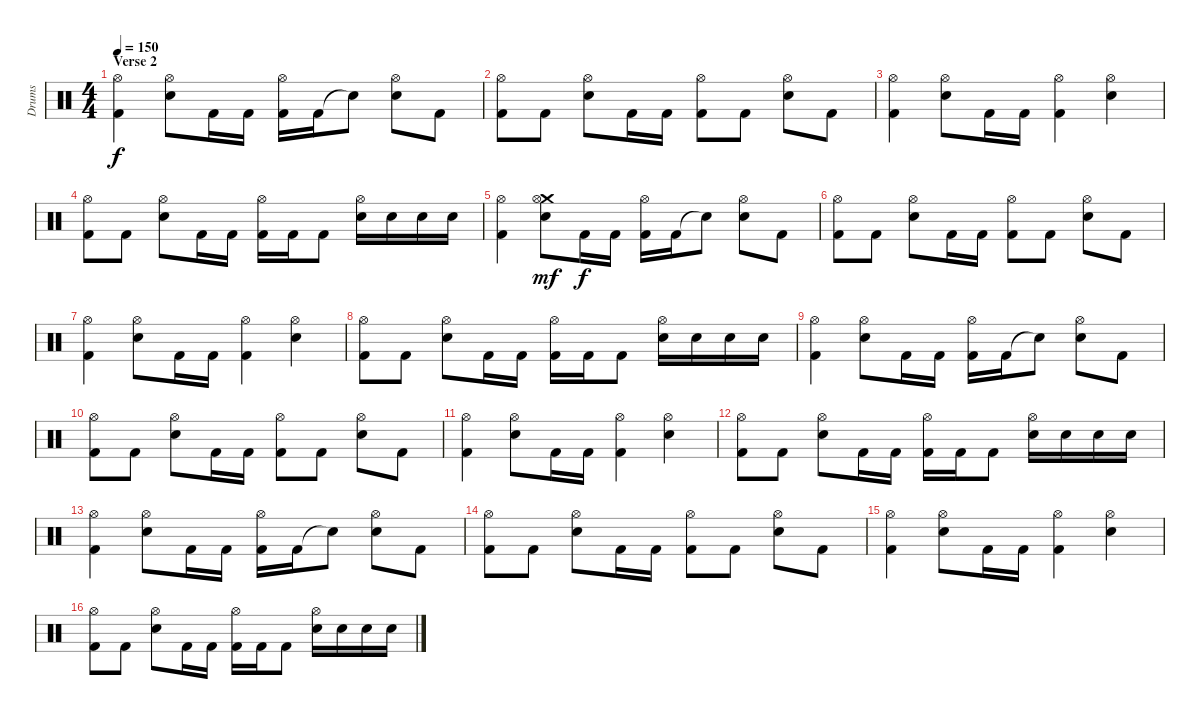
\track ("Drums" "Drums") {instrument percussion}
\staff {score}
\articulation defaults
\ts (4 4)
\section ("" "Verse 2")
\tempo 150
\clef neutral
\ks c
("Hi-Hat (open)" "Kick (hit) 2").4{dy f} ("Hi-Hat (open)" "Electric Snare (hit)").8 "Kick (hit) 2".16 "Kick (hit) 2".16 ("Hi-Hat (open)" "Kick (hit) 2").16 "Kick (hit) 2".16 "Snare (hit)"{t}.8 ("Hi-Hat (open)" "Electric Snare (hit)").8 "Kick (hit) 2".8 |
("Hi-Hat (open)" "Kick (hit) 2").8 "Kick (hit) 2".8 ("Hi-Hat (open)" "Electric Snare (hit)").8 "Kick (hit) 2".16 "Kick (hit) 2".16 ("Hi-Hat (open)" "Kick (hit) 2").8 "Kick (hit) 2".8 ("Hi-Hat (open)" "Electric Snare (hit)").8 "Kick (hit) 2".8 |
("Hi-Hat (open)" "Kick (hit) 2").4 ("Hi-Hat (open)" "Electric Snare (hit)").8 "Kick (hit) 2".16 "Kick (hit) 2".16 ("Hi-Hat (open)" "Kick (hit) 2").4 ("Hi-Hat (open)" "Electric Snare (hit)").4 |
("Hi-Hat (open)" "Kick (hit) 2").8 "Kick (hit) 2".8 ("Hi-Hat (open)" "Electric Snare (hit)").8 "Kick (hit) 2".16 "Kick (hit) 2".16 ("Hi-Hat (open)" "Kick (hit) 2").16 "Kick (hit) 2".16 "Kick (hit) 2".8 ("Hi-Hat (open)" "Electric Snare (hit)").16 "Electric Snare (hit)".16 "Electric Snare (hit)".16 "Electric Snare (hit)".16 |
("Hi-Hat (open)" "Kick (hit) 2").4 ("Crash medium (hit)" "Hi-Hat (open)" "Electric Snare (hit)").8{dy mf} "Kick (hit) 2".16{dy f} "Kick (hit) 2".16 ("Hi-Hat (open)" "Kick (hit) 2").16 "Kick (hit) 2".16 "Snare (hit)"{t}.8 ("Hi-Hat (open)" "Electric Snare (hit)").8 "Kick (hit) 2".8 |
("Hi-Hat (open)" "Kick (hit) 2").8 "Kick (hit) 2".8 ("Hi-Hat (open)" "Electric Snare (hit)").8 "Kick (hit) 2".16 "Kick (hit) 2".16 ("Hi-Hat (open)" "Kick (hit) 2").8 "Kick (hit) 2".8 ("Hi-Hat (open)" "Electric Snare (hit)").8 "Kick (hit) 2".8 |
("Hi-Hat (open)" "Kick (hit) 2").4 ("Hi-Hat (open)" "Electric Snare (hit)").8 "Kick (hit) 2".16 "Kick (hit) 2".16 ("Hi-Hat (open)" "Kick (hit) 2").4 ("Hi-Hat (open)" "Electric Snare (hit)").4 |
("Hi-Hat (open)" "Kick (hit) 2").8 "Kick (hit) 2".8 ("Hi-Hat (open)" "Electric Snare (hit)").8 "Kick (hit) 2".16 "Kick (hit) 2".16 ("Hi-Hat (open)" "Kick (hit) 2").16 "Kick (hit) 2".16 "Kick (hit) 2".8 ("Hi-Hat (open)" "Electric Snare (hit)").16 "Electric Snare (hit)".16 "Electric Snare (hit)".16 "Electric Snare (hit)".16 |
("Hi-Hat (open)" "Kick (hit) 2").4 ("Hi-Hat (open)" "Electric Snare (hit)").8 "Kick (hit) 2".16 "Kick (hit) 2".16 ("Hi-Hat (open)" "Kick (hit) 2").16 "Kick (hit) 2".16 "Snare (hit)"{t}.8 ("Hi-Hat (open)" "Electric Snare (hit)").8 "Kick (hit) 2".8 |
("Hi-Hat (open)" "Kick (hit) 2").8 "Kick (hit) 2".8 ("Hi-Hat (open)" "Electric Snare (hit)").8 "Kick (hit) 2".16 "Kick (hit) 2".16 ("Hi-Hat (open)" "Kick (hit) 2").8 "Kick (hit) 2".8 ("Hi-Hat (open)" "Electric Snare (hit)").8 "Kick (hit) 2".8 |
("Hi-Hat (open)" "Kick (hit) 2").4 ("Hi-Hat (open)" "Electric Snare (hit)").8 "Kick (hit) 2".16 "Kick (hit) 2".16 ("Hi-Hat (open)" "Kick (hit) 2").4 ("Hi-Hat (open)" "Electric Snare (hit)").4 |
("Hi-Hat (open)" "Kick (hit) 2").8 "Kick (hit) 2".8 ("Hi-Hat (open)" "Electric Snare (hit)").8 "Kick (hit) 2".16 "Kick (hit) 2".16 ("Hi-Hat (open)" "Kick (hit) 2").16 "Kick (hit) 2".16 "Kick (hit) 2".8 ("Hi-Hat (open)" "Electric Snare (hit)").16 "Electric Snare (hit)".16 "Electric Snare (hit)".16 "Electric Snare (hit)".16 |
("Hi-Hat (open)" "Kick (hit) 2").4 ("Hi-Hat (open)" "Electric Snare (hit)").8 "Kick (hit) 2".16 "Kick (hit) 2".16 ("Hi-Hat (open)" "Kick (hit) 2").16 "Kick (hit) 2".16 "Snare (hit)"{t}.8 ("Hi-Hat (open)" "Electric Snare (hit)").8 "Kick (hit) 2".8 |
("Hi-Hat (open)" "Kick (hit) 2").8 "Kick (hit) 2".8 ("Hi-Hat (open)" "Electric Snare (hit)").8 "Kick (hit) 2".16 "Kick (hit) 2".16 ("Hi-Hat (open)" "Kick (hit) 2").8 "Kick (hit) 2".8 ("Hi-Hat (open)" "Electric Snare (hit)").8 "Kick (hit) 2".8 |
("Hi-Hat (open)" "Kick (hit) 2").4 ("Hi-Hat (open)" "Electric Snare (hit)").8 "Kick (hit) 2".16 "Kick (hit) 2".16 ("Hi-Hat (open)" "Kick (hit) 2").4 ("Hi-Hat (open)" "Electric Snare (hit)").4 |
("Hi-Hat (open)" "Kick (hit) 2").8 "Kick (hit) 2".8 ("Hi-Hat (open)" "Electric Snare (hit)").8 "Kick (hit) 2".16 "Kick (hit) 2".16 ("Hi-Hat (open)" "Kick (hit) 2").16 "Kick (hit) 2".16 "Kick (hit) 2".8 ("Hi-Hat (open)" "Electric Snare (hit)").16 "Electric Snare (hit)".16 "Electric Snare (hit)".16 "Electric Snare (hit)".16
